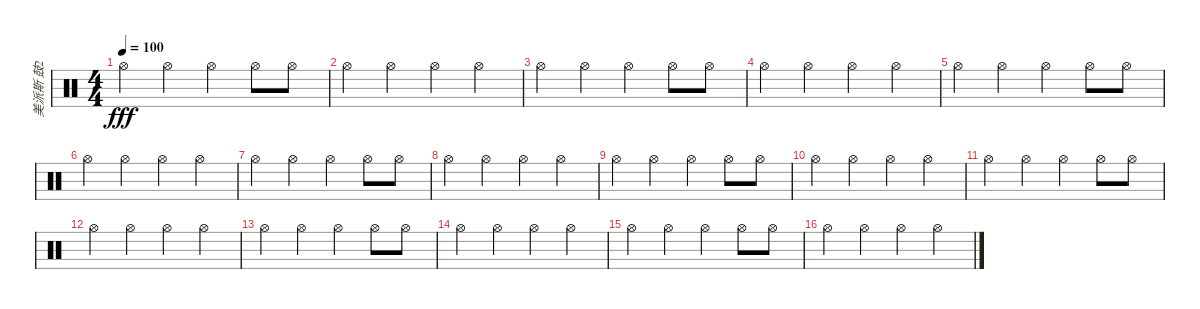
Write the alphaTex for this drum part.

\track ("美派斯 鼓2" "美派斯 鼓2") {instrument percussion}
\staff {score}
\articulation defaults
\ts (4 4)
\tempo 100
\clef neutral
\ks c "Hi-Hat (open)".4{dy fff} "Hi-Hat (open)".4 "Hi-Hat (open)".4 "Hi-Hat (open)".8 "Hi-Hat (open)".8
|
"Hi-Hat (open)".4 "Hi-Hat (open)".4 "Hi-Hat (open)".4 "Hi-Hat (open)".4 |
"Hi-Hat (open)".4 "Hi-Hat (open)".4 "Hi-Hat (open)".4 "Hi-Hat (open)".8 "Hi-Hat (open)".8 |
"Hi-Hat (open)".4 "Hi-Hat (open)".4 "Hi-Hat (open)".4 "Hi-Hat (open)".4 |
"Hi-Hat (open)".4 "Hi-Hat (open)".4 "Hi-Hat (open)".4 "Hi-Hat (open)".8 "Hi-Hat (open)".8 |
"Hi-Hat (open)".4 "Hi-Hat (open)".4 "Hi-Hat (open)".4 "Hi-Hat (open)".4 |
"Hi-Hat (open)".4 "Hi-Hat (open)".4 "Hi-Hat (open)".4 "Hi-Hat (open)".8 "Hi-Hat (open)".8 |
"Hi-Hat (open)".4 "Hi-Hat (open)".4 "Hi-Hat (open)".4 "Hi-Hat (open)".4 |
"Hi-Hat (open)".4 "Hi-Hat (open)".4 "Hi-Hat (open)".4 "Hi-Hat (open)".8 "Hi-Hat (open)".8 |
"Hi-Hat (open)".4 "Hi-Hat (open)".4 "Hi-Hat (open)".4 "Hi-Hat (open)".4 |
"Hi-Hat (open)".4 "Hi-Hat (open)".4 "Hi-Hat (open)".4 "Hi-Hat (open)".8 "Hi-Hat (open)".8 |
"Hi-Hat (open)".4 "Hi-Hat (open)".4 "Hi-Hat (open)".4 "Hi-Hat (open)".4 |
"Hi-Hat (open)".4 "Hi-Hat (open)".4 "Hi-Hat (open)".4 "Hi-Hat (open)".8 "Hi-Hat (open)".8 |
"Hi-Hat (open)".4 "Hi-Hat (open)".4 "Hi-Hat (open)".4 "Hi-Hat (open)".4 |
"Hi-Hat (open)".4 "Hi-Hat (open)".4 "Hi-Hat (open)".4 "Hi-Hat (open)".8 "Hi-Hat (open)".8 |
"Hi-Hat (open)".4 "Hi-Hat (open)".4 "Hi-Hat (open)".4 "Hi-Hat (open)".4
